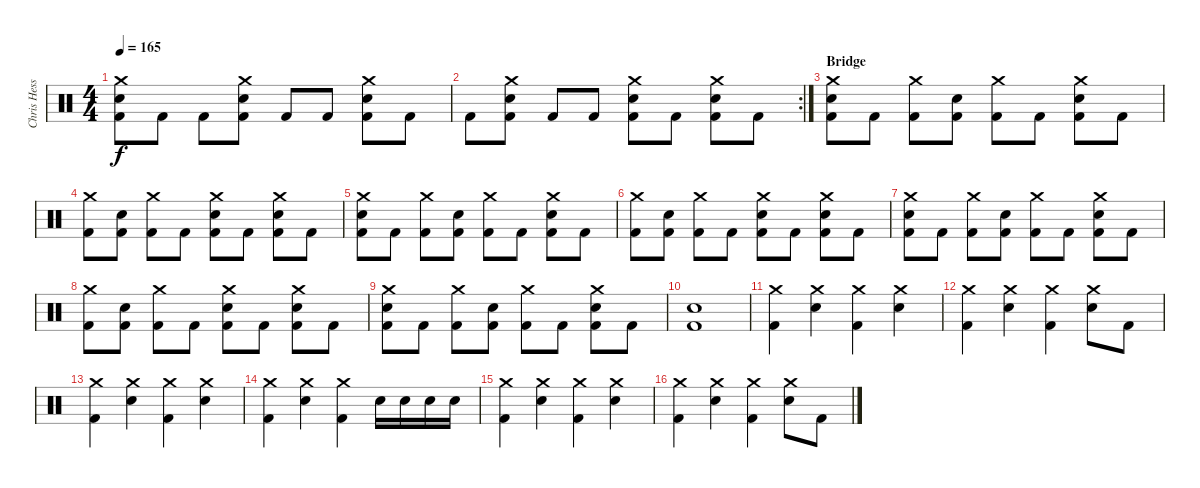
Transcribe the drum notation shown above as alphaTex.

\track ("Chris Hesse" "Chris Hess") {instrument percussion}
\staff {score}
\articulation defaults
\ts (4 4)
\tempo 165
\clef neutral
\ks c
("Crash medium (hit)" "Snare (hit) 2" "Kick (hit) 2").8{dy f} "Kick (hit) 2".8 "Kick (hit) 2".8 ("Crash medium (hit)" "Snare (hit) 2" "Kick (hit) 2").8 "Kick (hit) 2".8 "Kick (hit) 2".8 ("Crash medium (hit)" "Snare (hit) 2" "Kick (hit) 2").8 "Kick (hit) 2".8 |
\rc 2 "Kick (hit) 2".8
("Crash medium (hit)" "Snare (hit) 2" "Kick (hit) 2").8 "Kick (hit) 2".8 "Kick (hit) 2".8 ("Crash medium (hit)" "Snare (hit) 2" "Kick (hit) 2").8 "Kick (hit) 2".8 ("Crash medium (hit)" "Snare (hit) 2" "Kick (hit) 2").8 "Kick (hit) 2".8 |
\section ("" "Bridge")
("Crash medium (hit)" "Snare (hit) 2" "Kick (hit) 2").8 "Kick (hit) 2".8 ("Crash medium (hit)" "Kick (hit) 2").8 ("Snare (hit) 2" "Kick (hit) 2").8 ("Crash medium (hit)" "Kick (hit) 2").8 "Kick (hit) 2".8 ("Crash medium (hit)" "Snare (hit) 2" "Kick (hit) 2").8 "Kick (hit) 2".8 |
("Crash medium (hit)" "Kick (hit) 2").8 ("Snare (hit) 2" "Kick (hit) 2").8 ("Crash medium (hit)" "Kick (hit) 2").8 "Kick (hit) 2".8 ("Crash medium (hit)" "Snare (hit) 2" "Kick (hit) 2").8 "Kick (hit) 2".8 ("Crash medium (hit)" "Snare (hit) 2" "Kick (hit) 2").8 "Kick (hit) 2".8 |
("Crash medium (hit)" "Snare (hit) 2" "Kick (hit) 2").8 "Kick (hit) 2".8 ("Crash medium (hit)" "Kick (hit) 2").8 ("Snare (hit) 2" "Kick (hit) 2").8 ("Crash medium (hit)" "Kick (hit) 2").8 "Kick (hit) 2".8 ("Crash medium (hit)" "Snare (hit) 2" "Kick (hit) 2").8 "Kick (hit) 2".8 |
("Crash medium (hit)" "Kick (hit) 2").8 ("Snare (hit) 2" "Kick (hit) 2").8 ("Crash medium (hit)" "Kick (hit) 2").8 "Kick (hit) 2".8 ("Crash medium (hit)" "Snare (hit) 2" "Kick (hit) 2").8 "Kick (hit) 2".8 ("Crash medium (hit)" "Snare (hit) 2" "Kick (hit) 2").8 "Kick (hit) 2".8 |
("Crash medium (hit)" "Snare (hit) 2" "Kick (hit) 2").8 "Kick (hit) 2".8 ("Crash medium (hit)" "Kick (hit) 2").8 ("Snare (hit) 2" "Kick (hit) 2").8 ("Crash medium (hit)" "Kick (hit) 2").8 "Kick (hit) 2".8 ("Crash medium (hit)" "Snare (hit) 2" "Kick (hit) 2").8 "Kick (hit) 2".8 |
("Crash medium (hit)" "Kick (hit) 2").8 ("Snare (hit) 2" "Kick (hit) 2").8 ("Crash medium (hit)" "Kick (hit) 2").8 "Kick (hit) 2".8 ("Crash medium (hit)" "Snare (hit) 2" "Kick (hit) 2").8 "Kick (hit) 2".8 ("Crash medium (hit)" "Snare (hit) 2" "Kick (hit) 2").8 "Kick (hit) 2".8 |
("Crash medium (hit)" "Snare (hit) 2" "Kick (hit) 2").8 "Kick (hit) 2".8 ("Crash medium (hit)" "Kick (hit) 2").8 ("Snare (hit) 2" "Kick (hit) 2").8 ("Crash medium (hit)" "Kick (hit) 2").8 "Kick (hit) 2".8 ("Crash medium (hit)" "Snare (hit) 2" "Kick (hit) 2").8 "Kick (hit) 2".8 |
("Snare (hit) 2" "Kick (hit) 2").1 |
("Crash medium (hit)" "Kick (hit) 2").4 ("Crash medium (hit)" "Snare (hit) 2").4 ("Crash medium (hit)" "Kick (hit) 2").4 ("Crash medium (hit)" "Snare (hit) 2").4 |
("Crash medium (hit)" "Kick (hit) 2").4 ("Crash medium (hit)" "Snare (hit) 2").4 ("Crash medium (hit)" "Kick (hit) 2").4 ("Crash medium (hit)" "Snare (hit) 2").8 "Kick (hit) 2".8 |
("Crash medium (hit)" "Kick (hit) 2").4 ("Crash medium (hit)" "Snare (hit) 2").4 ("Crash medium (hit)" "Kick (hit) 2").4 ("Crash medium (hit)" "Snare (hit) 2").4 |
("Crash medium (hit)" "Kick (hit) 2").4 ("Crash medium (hit)" "Snare (hit) 2").4 ("Crash medium (hit)" "Kick (hit) 2").4 "Snare (hit) 2".16 "Snare (hit) 2".16 "Snare (hit) 2".16 "Snare (hit) 2".16 |
("Crash medium (hit)" "Kick (hit) 2").4 ("Crash medium (hit)" "Snare (hit) 2").4 ("Crash medium (hit)" "Kick (hit) 2").4 ("Crash medium (hit)" "Snare (hit) 2").4 |
("Crash medium (hit)" "Kick (hit) 2").4 ("Crash medium (hit)" "Snare (hit) 2").4 ("Crash medium (hit)" "Kick (hit) 2").4 ("Crash medium (hit)" "Snare (hit) 2").8 "Kick (hit) 2".8
